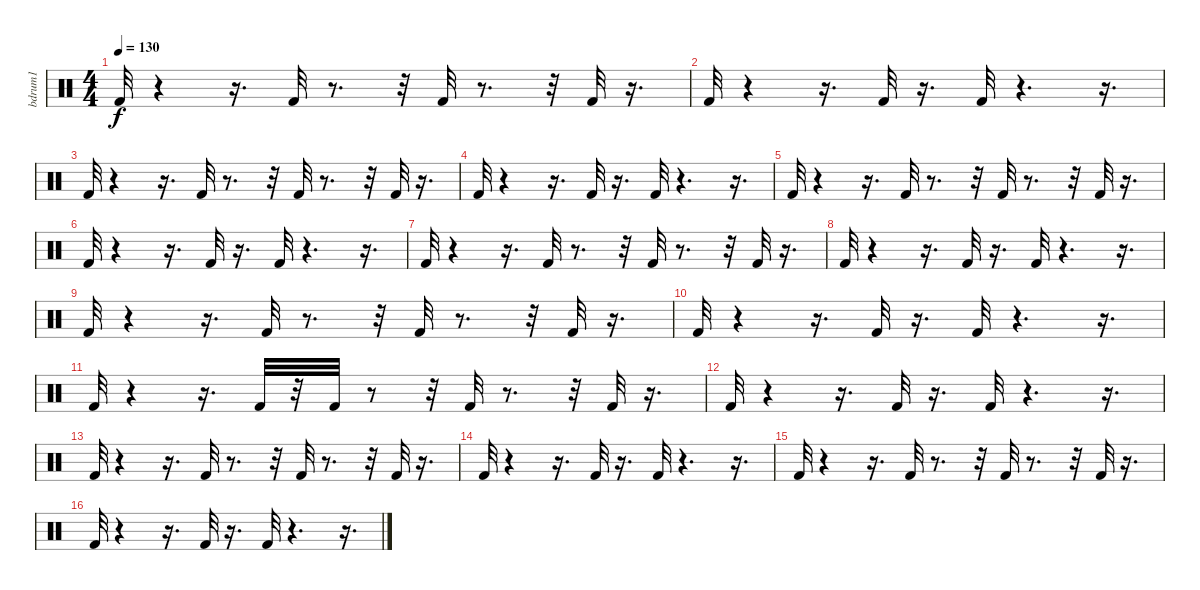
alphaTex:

\track ("bdrum1              " "bdrum1    ") {instrument percussion}
\staff {score}
\articulation defaults
\ts (4 4)
\tempo 130
\clef neutral
\ks c "Kick (hit) 2".32{dy f}
r.4 r.16{d} "Kick (hit) 2".32 r.8{d} r.32 "Kick (hit) 2".32 r.8{d} r.32 "Kick (hit) 2".32 r.16{d} |
"Kick (hit) 2".32 r.4 r.16{d} "Kick (hit) 2".32 r.16{d} "Kick (hit) 2".32 r.4{d} r.16{d} |
"Kick (hit) 2".32 r.4 r.16{d} "Kick (hit) 2".32 r.8{d} r.32 "Kick (hit) 2".32 r.8{d} r.32 "Kick (hit) 2".32 r.16{d} |
"Kick (hit) 2".32 r.4 r.16{d} "Kick (hit) 2".32 r.16{d} "Kick (hit) 2".32 r.4{d} r.16{d} |
"Kick (hit) 2".32 r.4 r.16{d} "Kick (hit) 2".32 r.8{d} r.32 "Kick (hit) 2".32 r.8{d} r.32 "Kick (hit) 2".32 r.16{d} |
"Kick (hit) 2".32 r.4 r.16{d} "Kick (hit) 2".32 r.16{d} "Kick (hit) 2".32 r.4{d} r.16{d} |
"Kick (hit) 2".32 r.4 r.16{d} "Kick (hit) 2".32 r.8{d} r.32 "Kick (hit) 2".32 r.8{d} r.32 "Kick (hit) 2".32 r.16{d} |
"Kick (hit) 2".32 r.4 r.16{d} "Kick (hit) 2".32 r.16{d} "Kick (hit) 2".32 r.4{d} r.16{d} |
"Kick (hit) 2".32 r.4 r.16{d} "Kick (hit) 2".32 r.8{d} r.32 "Kick (hit) 2".32 r.8{d} r.32 "Kick (hit) 2".32 r.16{d} |
"Kick (hit) 2".32 r.4 r.16{d} "Kick (hit) 2".32 r.16{d} "Kick (hit) 2".32 r.4{d} r.16{d} |
"Kick (hit) 2".32 r.4 r.16{d} "Kick (hit) 2".32 r.32 "Kick (hit) 2".32 r.8 r.32 "Kick (hit) 2".32 r.8{d} r.32 "Kick (hit) 2".32 r.16{d} |
"Kick (hit) 2".32 r.4 r.16{d} "Kick (hit) 2".32 r.16{d} "Kick (hit) 2".32 r.4{d} r.16{d} |
"Kick (hit) 2".32 r.4 r.16{d} "Kick (hit) 2".32 r.8{d} r.32 "Kick (hit) 2".32 r.8{d} r.32 "Kick (hit) 2".32 r.16{d} |
"Kick (hit) 2".32 r.4 r.16{d} "Kick (hit) 2".32 r.16{d} "Kick (hit) 2".32 r.4{d} r.16{d} |
"Kick (hit) 2".32 r.4 r.16{d} "Kick (hit) 2".32 r.8{d} r.32 "Kick (hit) 2".32 r.8{d} r.32 "Kick (hit) 2".32 r.16{d} |
"Kick (hit) 2".32 r.4 r.16{d} "Kick (hit) 2".32 r.16{d} "Kick (hit) 2".32 r.4{d} r.16{d}
